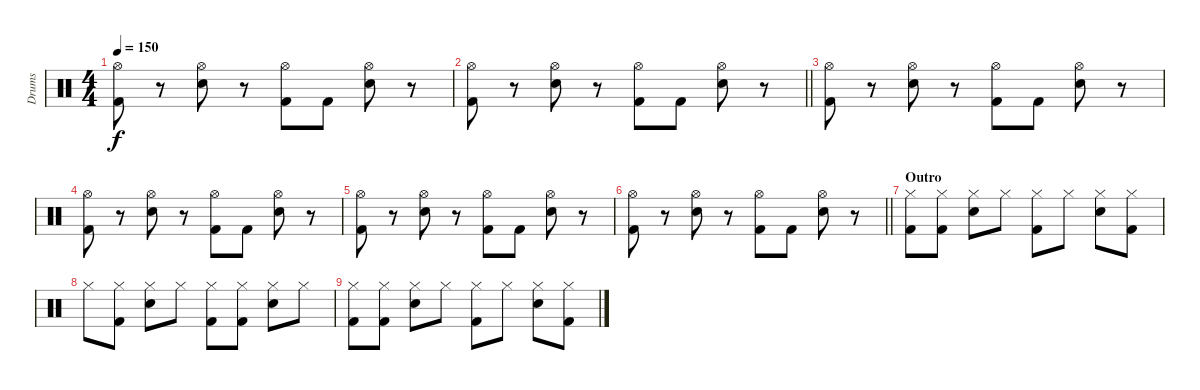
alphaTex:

\track ("Drums" "Drums") {instrument percussion}
\staff {score}
\articulation defaults
\ts (4 4)
\tempo 150
\clef neutral
\ks c
("Hi-Hat (open)" "Kick (hit) 2").8{dy f} r.8 ("Hi-Hat (open)" "Snare (hit) 2").8 r.8 ("Hi-Hat (open)" "Kick (hit) 2").8 "Kick (hit) 2".8 ("Hi-Hat (open)" "Snare (hit) 2").8 r.8 |
\barLineRight lightlight
("Hi-Hat (open)" "Kick (hit) 2").8 r.8 ("Hi-Hat (open)" "Snare (hit) 2").8 r.8 ("Hi-Hat (open)" "Kick (hit) 2").8 "Kick (hit) 2".8 ("Hi-Hat (open)" "Snare (hit) 2").8 r.8 |
("Hi-Hat (open)" "Kick (hit) 2").8 r.8 ("Hi-Hat (open)" "Snare (hit) 2").8 r.8 ("Hi-Hat (open)" "Kick (hit) 2").8 "Kick (hit) 2".8 ("Hi-Hat (open)" "Snare (hit) 2").8 r.8 |
("Hi-Hat (open)" "Kick (hit) 2").8 r.8 ("Hi-Hat (open)" "Snare (hit) 2").8 r.8 ("Hi-Hat (open)" "Kick (hit) 2").8 "Kick (hit) 2".8 ("Hi-Hat (open)" "Snare (hit) 2").8 r.8 |
("Hi-Hat (open)" "Kick (hit) 2").8 r.8 ("Hi-Hat (open)" "Snare (hit) 2").8 r.8 ("Hi-Hat (open)" "Kick (hit) 2").8 "Kick (hit) 2".8 ("Hi-Hat (open)" "Snare (hit) 2").8 r.8 |
\barLineRight lightlight
("Hi-Hat (open)" "Kick (hit) 2").8 r.8 ("Hi-Hat (open)" "Snare (hit) 2").8 r.8 ("Hi-Hat (open)" "Kick (hit) 2").8 "Kick (hit) 2".8 ("Hi-Hat (open)" "Snare (hit) 2").8 r.8 |
\section ("" "Outro")
("Hi-Hat (closed)" "Kick (hit) 2").8 ("Hi-Hat (closed)" "Kick (hit) 2").8 ("Hi-Hat (closed)" "Snare (hit) 2").8 "Hi-Hat (closed)".8 ("Hi-Hat (closed)" "Kick (hit) 2").8 "Hi-Hat (closed)".8 ("Hi-Hat (closed)" "Snare (hit) 2").8 ("Hi-Hat (closed)" "Kick (hit) 2").8 |
"Hi-Hat (closed)".8 ("Hi-Hat (closed)" "Kick (hit) 2").8 ("Hi-Hat (closed)" "Snare (hit) 2").8 "Hi-Hat (closed)".8 ("Hi-Hat (closed)" "Kick (hit) 2").8 ("Hi-Hat (closed)" "Kick (hit) 2").8 ("Hi-Hat (closed)" "Snare (hit) 2").8 "Hi-Hat (closed)".8 |
("Hi-Hat (closed)" "Kick (hit) 2").8 ("Hi-Hat (closed)" "Kick (hit) 2").8 ("Hi-Hat (closed)" "Snare (hit) 2").8 "Hi-Hat (closed)".8 ("Hi-Hat (closed)" "Kick (hit) 2").8 "Hi-Hat (closed)".8 ("Hi-Hat (closed)" "Snare (hit) 2").8 ("Hi-Hat (closed)" "Kick (hit) 2").8
